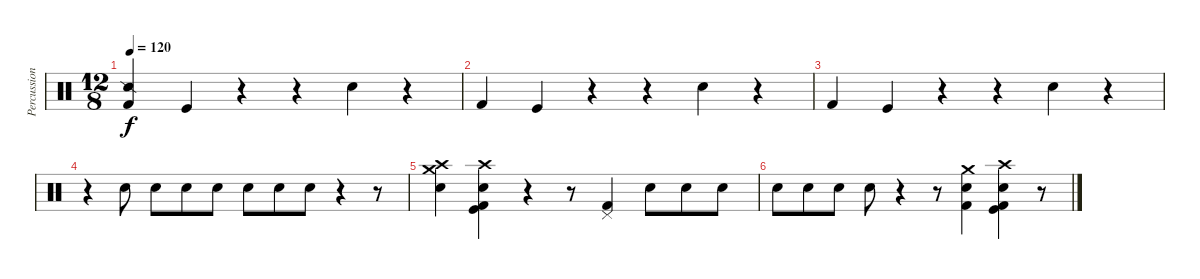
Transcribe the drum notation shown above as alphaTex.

\track ("Percussioni" "Percussion") {instrument percussion}
\staff {score}
\articulation defaults
\ts (12 8)
\tempo 120
\clef neutral
\ks c
("Kick (hit) 2" "Snare (side stick) 2").4{dy f} "Kick (hit)".4 r.4 r.4 "Electric Snare (hit)".4 r.4 |
"Kick (hit) 2".4 "Kick (hit)".4 r.4 r.4 "Electric Snare (hit)".4 r.4 |
"Kick (hit) 2".4 "Kick (hit)".4 r.4 r.4 "Electric Snare (hit)".4 r.4 |
r.4 "Electric Snare (hit)".8 "Electric Snare (hit)".8 "Electric Snare (hit)".8 "Electric Snare (hit)".8 "Electric Snare (hit)".8 "Electric Snare (hit)".8 "Electric Snare (hit)".8 r.4 r.8 |
("Snare (hit) 2" "Crash medium (hit)" "Crash high (hit)").4 ("Kick (hit) 2" "Crash high (hit)" "Snare (hit) 2" "Kick (hit)").4 r.4 r.8 ("Pedal Hi-Hat (hit)" "Kick (hit) 2").4 "Electric Snare (hit)".8 "Electric Snare (hit)".8 "Electric Snare (hit)".8 |
"Electric Snare (hit)".8 "Electric Snare (hit)".8 "Electric Snare (hit)".8 "Electric Snare (hit)".8 r.4 r.8 ("Snare (hit) 2" "Kick (hit) 2" "Crash medium (hit)").4 ("Crash high (hit)" "Kick (hit) 2" "Kick (hit)" "Snare (hit) 2").4 r.8
